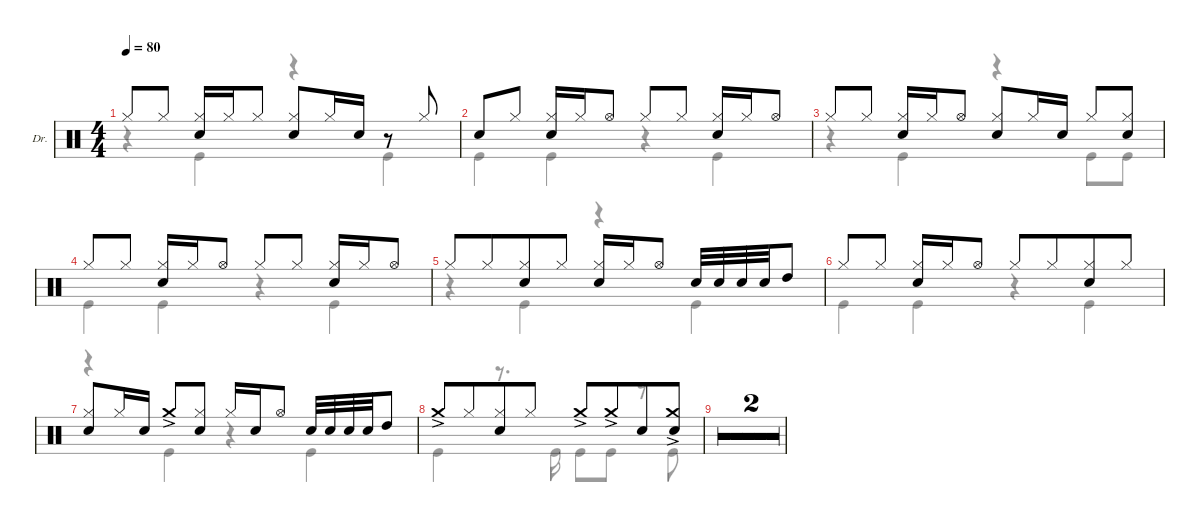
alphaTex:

\defaultSystemsLayout 4
\hideDynamics
\bracketExtendMode groupsimilarinstruments
\firstSystemTrackNameOrientation horizontal
\otherSystemsTrackNameOrientation horizontal
\track ("Drums" "Dr.") {multiBarRest instrument percussion}
\staff {score}
\articulation defaults
\voice
\ts (4 4)
\tempo 80
\clef neutral
\ks c "Hi-Hat (closed)".8{dy mf} "Hi-Hat (closed)".8
("Hi-Hat (closed)" "Snare (hit) 2").16 "Hi-Hat (closed)".16 "Hi-Hat (closed)".8 ("Hi-Hat (closed)" "Snare (hit) 2").8 "Hi-Hat (closed)".16 "Snare (hit) 2".16 r.8 "Hi-Hat (closed)".8 |
"Snare (hit) 2".8 "Hi-Hat (closed)".8 ("Hi-Hat (closed)" "Snare (hit) 2").16 "Hi-Hat (closed)".16 "Hi-Hat (open)".8 "Hi-Hat (closed)".8 "Hi-Hat (closed)".8 ("Hi-Hat (closed)" "Snare (hit) 2").16 "Hi-Hat (closed)".16 "Hi-Hat (open)".8 |
"Hi-Hat (closed)".8 "Hi-Hat (closed)".8 ("Hi-Hat (closed)" "Snare (hit) 2").16 "Hi-Hat (closed)".16 "Hi-Hat (open)".8 ("Hi-Hat (closed)" "Snare (hit) 2").8 "Hi-Hat (closed)".16 "Snare (hit) 2".16 "Hi-Hat (closed)".8 ("Hi-Hat (closed)" "Snare (hit) 2").8 |
"Hi-Hat (closed)".8 "Hi-Hat (closed)".8 ("Hi-Hat (closed)" "Snare (hit) 2").16 "Hi-Hat (closed)".16 "Hi-Hat (open)".8 "Hi-Hat (closed)".8 "Hi-Hat (closed)".8 ("Hi-Hat (closed)" "Snare (hit) 2").16 "Hi-Hat (closed)".16 "Hi-Hat (open)".8 |
"Hi-Hat (closed)".8 "Hi-Hat (closed)".8{beam merge} ("Hi-Hat (closed)" "Snare (hit) 2").8{beam merge} "Hi-Hat (closed)".8 ("Hi-Hat (closed)" "Snare (hit) 2").16 "Hi-Hat (closed)".16 "Hi-Hat (open)".8 "Snare (hit) 2".32 "Snare (hit) 2".32 "Snare (hit) 2".32 "Snare (hit) 2".32 "High Tom (hit)".8 |
"Hi-Hat (closed)".8 "Hi-Hat (closed)".8 ("Hi-Hat (closed)" "Snare (hit) 2").16 "Hi-Hat (closed)".16 "Hi-Hat (open)".8 "Hi-Hat (closed)".8 "Hi-Hat (closed)".8{beam merge} ("Hi-Hat (closed)" "Snare (hit) 2").8{beam merge} "Hi-Hat (closed)".8 |
("Hi-Hat (closed)" "Snare (hit) 2").8 "Hi-Hat (closed)".16 "Snare (hit) 2".16 "Crash medium (hit)"{ac}.8 ("Hi-Hat (closed)" "Snare (hit) 2").8 "Hi-Hat (closed)".16 "Snare (hit) 2".16 "Hi-Hat (open)".8 "Snare (hit) 2".32 "Snare (hit) 2".32 "Snare (hit) 2".32 "Snare (hit) 2".32 "High Tom (hit)".8 |
"Crash medium (hit)"{ac}.8 "Hi-Hat (closed)".8{beam merge} ("Hi-Hat (closed)" "Snare (hit) 2").8 "Hi-Hat (closed)".8 "Crash medium (hit)"{ac}.8 "Crash medium (hit)"{ac}.8{beam merge} "Snare (hit) 2".8 ("Crash medium (hit)"{ac} "Snare (hit) 2").8 |
r.1 |
r.1
\voice
\clef neutral
\ottava regular
\simile none
\ks c
r.4{dy mf} "Kick (hit)".4 r.4 "Kick (hit)".4 |
"Kick (hit)".4 "Kick (hit)".4 r.4 "Kick (hit)".4 |
r.4 "Kick (hit)".4 r.4 "Kick (hit)".8 "Kick (hit)".8 |
"Kick (hit)".4 "Kick (hit)".4 r.4 "Kick (hit)".4 |
r.4 "Kick (hit)".4 r.4 "Kick (hit)".4 |
"Kick (hit)".4 "Kick (hit)".4 r.4 "Kick (hit)".4 |
r.4 "Kick (hit)".4 r.4 "Kick (hit)".4 |
"Kick (hit)".4 r.8{d} "Kick (hit)".16 "Kick (hit)".8 "Kick (hit)".8 r.8 "Kick (hit)".8 |
r.1 |
r.1
